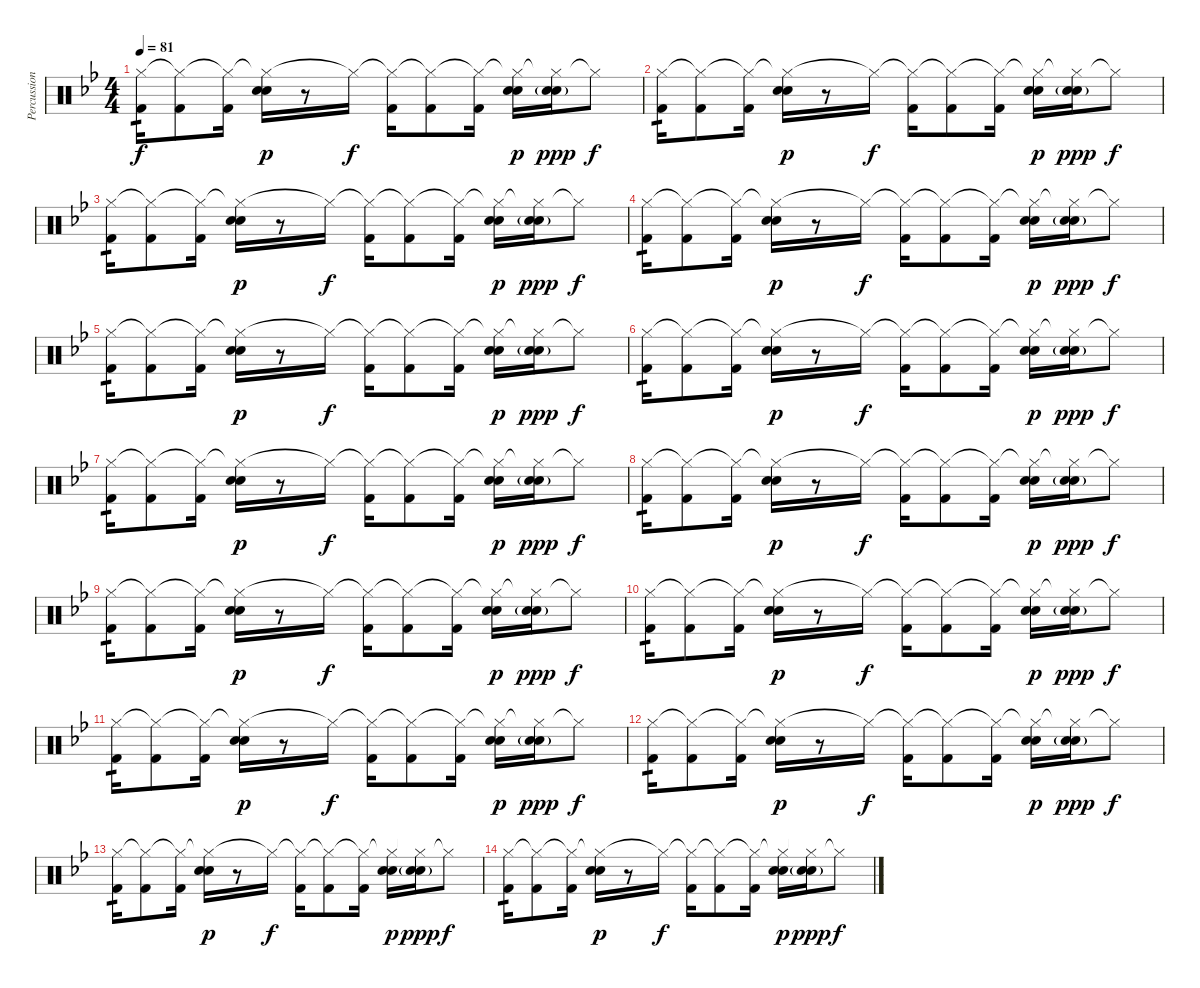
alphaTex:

\track ("Percussion" "Percussion") {instrument percussion}
\staff {score}
\articulation defaults
\ts (4 4)
\tempo 81
\clef neutral
\ks bb
("Hi-Hat (closed)" "Kick (hit) 2").16{tp 1 dy f} ("Hi-Hat (closed)"{t} "Kick (hit) 2").8 ("Hi-Hat (closed)"{t} "Kick (hit) 2").16 ("Hi-Hat (closed)"{t} "Hand Clap (hit)" "Electric Snare (hit)").16{dy p} r.8 "Hi-Hat (closed)"{t}.16{dy f} ("Hi-Hat (closed)"{t} "Kick (hit) 2").16 ("Hi-Hat (closed)"{t} "Kick (hit) 2").8 ("Hi-Hat (closed)"{t} "Kick (hit) 2").16 ("Hi-Hat (closed)"{t} "Hand Clap (hit)" "Electric Snare (hit)").16{dy p} ("Hi-Hat (closed)"{t} "Hand Clap (hit)"{g} "Electric Snare (hit)"{g}).16{dy ppp} "Hi-Hat (closed)"{t}.8{dy f} |
("Hi-Hat (closed)" "Kick (hit) 2").16{tp 1} ("Hi-Hat (closed)"{t} "Kick (hit) 2").8 ("Hi-Hat (closed)"{t} "Kick (hit) 2").16 ("Hi-Hat (closed)"{t} "Hand Clap (hit)" "Electric Snare (hit)").16{dy p} r.8 "Hi-Hat (closed)"{t}.16{dy f} ("Hi-Hat (closed)"{t} "Kick (hit) 2").16 ("Hi-Hat (closed)"{t} "Kick (hit) 2").8 ("Hi-Hat (closed)"{t} "Kick (hit) 2").16 ("Hi-Hat (closed)"{t} "Hand Clap (hit)" "Electric Snare (hit)").16{dy p} ("Hi-Hat (closed)"{t} "Hand Clap (hit)"{g} "Electric Snare (hit)"{g}).16{dy ppp} "Hi-Hat (closed)"{t}.8{dy f} |
("Hi-Hat (closed)" "Kick (hit) 2").16{tp 1} ("Hi-Hat (closed)"{t} "Kick (hit) 2").8 ("Hi-Hat (closed)"{t} "Kick (hit) 2").16 ("Hi-Hat (closed)"{t} "Hand Clap (hit)" "Electric Snare (hit)").16{dy p} r.8 "Hi-Hat (closed)"{t}.16{dy f} ("Hi-Hat (closed)"{t} "Kick (hit) 2").16 ("Hi-Hat (closed)"{t} "Kick (hit) 2").8 ("Hi-Hat (closed)"{t} "Kick (hit) 2").16 ("Hi-Hat (closed)"{t} "Hand Clap (hit)" "Electric Snare (hit)").16{dy p} ("Hi-Hat (closed)"{t} "Hand Clap (hit)"{g} "Electric Snare (hit)"{g}).16{dy ppp} "Hi-Hat (closed)"{t}.8{dy f} |
("Hi-Hat (closed)" "Kick (hit) 2").16{tp 1} ("Hi-Hat (closed)"{t} "Kick (hit) 2").8 ("Hi-Hat (closed)"{t} "Kick (hit) 2").16 ("Hi-Hat (closed)"{t} "Hand Clap (hit)" "Electric Snare (hit)").16{dy p} r.8 "Hi-Hat (closed)"{t}.16{dy f} ("Hi-Hat (closed)"{t} "Kick (hit) 2").16 ("Hi-Hat (closed)"{t} "Kick (hit) 2").8 ("Hi-Hat (closed)"{t} "Kick (hit) 2").16 ("Hi-Hat (closed)"{t} "Hand Clap (hit)" "Electric Snare (hit)").16{dy p} ("Hi-Hat (closed)"{t} "Hand Clap (hit)"{g} "Electric Snare (hit)"{g}).16{dy ppp} "Hi-Hat (closed)"{t}.8{dy f} |
("Hi-Hat (closed)" "Kick (hit) 2").16{tp 1} ("Hi-Hat (closed)"{t} "Kick (hit) 2").8 ("Hi-Hat (closed)"{t} "Kick (hit) 2").16 ("Hi-Hat (closed)"{t} "Hand Clap (hit)" "Electric Snare (hit)").16{dy p} r.8 "Hi-Hat (closed)"{t}.16{dy f} ("Hi-Hat (closed)"{t} "Kick (hit) 2").16 ("Hi-Hat (closed)"{t} "Kick (hit) 2").8 ("Hi-Hat (closed)"{t} "Kick (hit) 2").16 ("Hi-Hat (closed)"{t} "Hand Clap (hit)" "Electric Snare (hit)").16{dy p} ("Hi-Hat (closed)"{t} "Hand Clap (hit)"{g} "Electric Snare (hit)"{g}).16{dy ppp} "Hi-Hat (closed)"{t}.8{dy f} |
("Hi-Hat (closed)" "Kick (hit) 2").16{tp 1} ("Hi-Hat (closed)"{t} "Kick (hit) 2").8 ("Hi-Hat (closed)"{t} "Kick (hit) 2").16 ("Hi-Hat (closed)"{t} "Hand Clap (hit)" "Electric Snare (hit)").16{dy p} r.8 "Hi-Hat (closed)"{t}.16{dy f} ("Hi-Hat (closed)"{t} "Kick (hit) 2").16 ("Hi-Hat (closed)"{t} "Kick (hit) 2").8 ("Hi-Hat (closed)"{t} "Kick (hit) 2").16 ("Hi-Hat (closed)"{t} "Hand Clap (hit)" "Electric Snare (hit)").16{dy p} ("Hi-Hat (closed)"{t} "Hand Clap (hit)"{g} "Electric Snare (hit)"{g}).16{dy ppp} "Hi-Hat (closed)"{t}.8{dy f} |
("Hi-Hat (closed)" "Kick (hit) 2").16{tp 1} ("Hi-Hat (closed)"{t} "Kick (hit) 2").8 ("Hi-Hat (closed)"{t} "Kick (hit) 2").16 ("Hi-Hat (closed)"{t} "Hand Clap (hit)" "Electric Snare (hit)").16{dy p} r.8 "Hi-Hat (closed)"{t}.16{dy f} ("Hi-Hat (closed)"{t} "Kick (hit) 2").16 ("Hi-Hat (closed)"{t} "Kick (hit) 2").8 ("Hi-Hat (closed)"{t} "Kick (hit) 2").16 ("Hi-Hat (closed)"{t} "Hand Clap (hit)" "Electric Snare (hit)").16{dy p} ("Hi-Hat (closed)"{t} "Hand Clap (hit)"{g} "Electric Snare (hit)"{g}).16{dy ppp} "Hi-Hat (closed)"{t}.8{dy f} |
("Hi-Hat (closed)" "Kick (hit) 2").16{tp 1} ("Hi-Hat (closed)"{t} "Kick (hit) 2").8 ("Hi-Hat (closed)"{t} "Kick (hit) 2").16 ("Hi-Hat (closed)"{t} "Hand Clap (hit)" "Electric Snare (hit)").16{dy p} r.8 "Hi-Hat (closed)"{t}.16{dy f} ("Hi-Hat (closed)"{t} "Kick (hit) 2").16 ("Hi-Hat (closed)"{t} "Kick (hit) 2").8 ("Hi-Hat (closed)"{t} "Kick (hit) 2").16 ("Hi-Hat (closed)"{t} "Hand Clap (hit)" "Electric Snare (hit)").16{dy p} ("Hi-Hat (closed)"{t} "Hand Clap (hit)"{g} "Electric Snare (hit)"{g}).16{dy ppp} "Hi-Hat (closed)"{t}.8{dy f} |
("Hi-Hat (closed)" "Kick (hit) 2").16{tp 1} ("Hi-Hat (closed)"{t} "Kick (hit) 2").8 ("Hi-Hat (closed)"{t} "Kick (hit) 2").16 ("Hi-Hat (closed)"{t} "Hand Clap (hit)" "Electric Snare (hit)").16{dy p} r.8 "Hi-Hat (closed)"{t}.16{dy f} ("Hi-Hat (closed)"{t} "Kick (hit) 2").16 ("Hi-Hat (closed)"{t} "Kick (hit) 2").8 ("Hi-Hat (closed)"{t} "Kick (hit) 2").16 ("Hi-Hat (closed)"{t} "Hand Clap (hit)" "Electric Snare (hit)").16{dy p} ("Hi-Hat (closed)"{t} "Hand Clap (hit)"{g} "Electric Snare (hit)"{g}).16{dy ppp} "Hi-Hat (closed)"{t}.8{dy f} |
("Hi-Hat (closed)" "Kick (hit) 2").16{tp 1} ("Hi-Hat (closed)"{t} "Kick (hit) 2").8 ("Hi-Hat (closed)"{t} "Kick (hit) 2").16 ("Hi-Hat (closed)"{t} "Hand Clap (hit)" "Electric Snare (hit)").16{dy p} r.8 "Hi-Hat (closed)"{t}.16{dy f} ("Hi-Hat (closed)"{t} "Kick (hit) 2").16 ("Hi-Hat (closed)"{t} "Kick (hit) 2").8 ("Hi-Hat (closed)"{t} "Kick (hit) 2").16 ("Hi-Hat (closed)"{t} "Hand Clap (hit)" "Electric Snare (hit)").16{dy p} ("Hi-Hat (closed)"{t} "Hand Clap (hit)"{g} "Electric Snare (hit)"{g}).16{dy ppp} "Hi-Hat (closed)"{t}.8{dy f} |
("Hi-Hat (closed)" "Kick (hit) 2").16{tp 1} ("Hi-Hat (closed)"{t} "Kick (hit) 2").8 ("Hi-Hat (closed)"{t} "Kick (hit) 2").16 ("Hi-Hat (closed)"{t} "Hand Clap (hit)" "Electric Snare (hit)").16{dy p} r.8 "Hi-Hat (closed)"{t}.16{dy f} ("Hi-Hat (closed)"{t} "Kick (hit) 2").16 ("Hi-Hat (closed)"{t} "Kick (hit) 2").8 ("Hi-Hat (closed)"{t} "Kick (hit) 2").16 ("Hi-Hat (closed)"{t} "Hand Clap (hit)" "Electric Snare (hit)").16{dy p} ("Hi-Hat (closed)"{t} "Hand Clap (hit)"{g} "Electric Snare (hit)"{g}).16{dy ppp} "Hi-Hat (closed)"{t}.8{dy f} |
("Hi-Hat (closed)" "Kick (hit) 2").16{tp 1} ("Hi-Hat (closed)"{t} "Kick (hit) 2").8 ("Hi-Hat (closed)"{t} "Kick (hit) 2").16 ("Hi-Hat (closed)"{t} "Hand Clap (hit)" "Electric Snare (hit)").16{dy p} r.8 "Hi-Hat (closed)"{t}.16{dy f} ("Hi-Hat (closed)"{t} "Kick (hit) 2").16 ("Hi-Hat (closed)"{t} "Kick (hit) 2").8 ("Hi-Hat (closed)"{t} "Kick (hit) 2").16 ("Hi-Hat (closed)"{t} "Hand Clap (hit)" "Electric Snare (hit)").16{dy p} ("Hi-Hat (closed)"{t} "Hand Clap (hit)"{g} "Electric Snare (hit)"{g}).16{dy ppp} "Hi-Hat (closed)"{t}.8{dy f} |
("Hi-Hat (closed)" "Kick (hit) 2").16{tp 1} ("Hi-Hat (closed)"{t} "Kick (hit) 2").8 ("Hi-Hat (closed)"{t} "Kick (hit) 2").16 ("Hi-Hat (closed)"{t} "Hand Clap (hit)" "Electric Snare (hit)").16{dy p} r.8 "Hi-Hat (closed)"{t}.16{dy f} ("Hi-Hat (closed)"{t} "Kick (hit) 2").16 ("Hi-Hat (closed)"{t} "Kick (hit) 2").8 ("Hi-Hat (closed)"{t} "Kick (hit) 2").16 ("Hi-Hat (closed)"{t} "Hand Clap (hit)" "Electric Snare (hit)").16{dy p} ("Hi-Hat (closed)"{t} "Hand Clap (hit)"{g} "Electric Snare (hit)"{g}).16{dy ppp} "Hi-Hat (closed)"{t}.8{dy f} |
("Hi-Hat (closed)" "Kick (hit) 2").16{tp 1} ("Hi-Hat (closed)"{t} "Kick (hit) 2").8 ("Hi-Hat (closed)"{t} "Kick (hit) 2").16 ("Hi-Hat (closed)"{t} "Hand Clap (hit)" "Electric Snare (hit)").16{dy p} r.8 "Hi-Hat (closed)"{t}.16{dy f} ("Hi-Hat (closed)"{t} "Kick (hit) 2").16 ("Hi-Hat (closed)"{t} "Kick (hit) 2").8 ("Hi-Hat (closed)"{t} "Kick (hit) 2").16 ("Hi-Hat (closed)"{t} "Hand Clap (hit)" "Electric Snare (hit)").16{dy p} ("Hi-Hat (closed)"{t} "Hand Clap (hit)"{g} "Electric Snare (hit)"{g}).16{dy ppp} "Hi-Hat (closed)"{t}.8{dy f}
